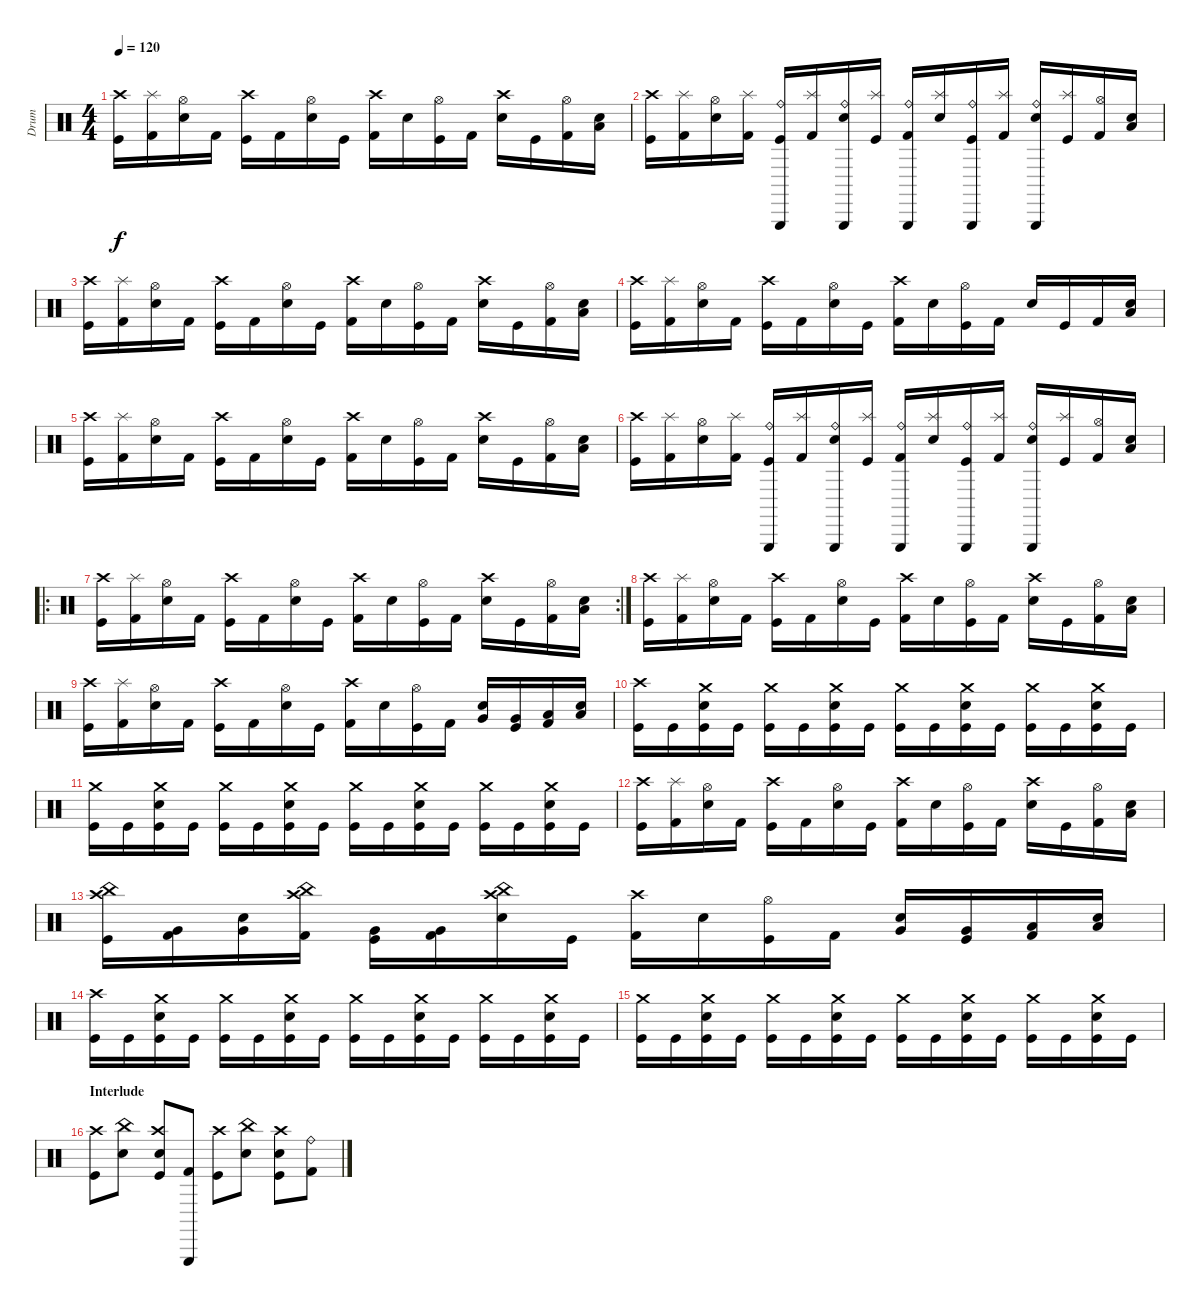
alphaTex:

\track ("Drum" "Drum") {instrument percussion}
\staff {score}
\articulation defaults
\ts (4 4)
\tempo 120
\clef neutral
\ks c
("Crash high (hit)" "Kick (hit)").16{dy f} ("Splash (hit)" "Kick (hit) 2").16 ("Hi-Hat (open)" "Snare (hit) 2").16 "Kick (hit) 2".16 ("Crash high (hit)" "Kick (hit)").16 "Kick (hit) 2".16 ("Hi-Hat (open)" "Snare (hit) 2").16 "Kick (hit)".16 ("Crash high (hit)" "Kick (hit) 2").16 "Snare (hit) 2".16 ("Hi-Hat (open)" "Kick (hit)").16 "Kick (hit) 2".16 ("Crash high (hit)" "Snare (hit) 2").16 "Kick (hit)".16 ("Hi-Hat (open)" "Kick (hit) 2").16 ("Low Tom (hit)" "Snare (hit) 2").16 |
("Crash high (hit)" "Kick (hit)").16 ("Splash (hit)" "Kick (hit) 2").16 ("Hi-Hat (open)" "Snare (hit) 2").16 ("Splash (hit)" "Kick (hit) 2").16 ("Ride (bell)" "Triangle (hit)" "Kick (hit)").16 ("Splash (hit)" "Kick (hit) 2").16 ("Ride (bell)" "Triangle (hit)" "Snare (hit) 2").16 ("Splash (hit)" "Kick (hit)").16 ("Ride (bell)" "Triangle (hit)" "Kick (hit) 2").16 ("Splash (hit)" "Snare (hit) 2").16 ("Ride (bell)" "Triangle (hit)" "Kick (hit)").16 ("Splash (hit)" "Kick (hit) 2").16 ("Ride (bell)" "Triangle (hit)" "Snare (hit) 2").16 ("Splash (hit)" "Kick (hit)").16 ("Hi-Hat (open)" "Kick (hit) 2").16 ("Low Tom (hit)" "Snare (hit) 2").16 |
("Crash high (hit)" "Kick (hit)").16 ("Splash (hit)" "Kick (hit) 2").16 ("Hi-Hat (open)" "Snare (hit) 2").16 "Kick (hit) 2".16 ("Crash high (hit)" "Kick (hit)").16 "Kick (hit) 2".16 ("Hi-Hat (open)" "Snare (hit) 2").16 "Kick (hit)".16 ("Crash high (hit)" "Kick (hit) 2").16 "Snare (hit) 2".16 ("Hi-Hat (open)" "Kick (hit)").16 "Kick (hit) 2".16 ("Crash high (hit)" "Snare (hit) 2").16 "Kick (hit)".16 ("Hi-Hat (open)" "Kick (hit) 2").16 ("Low Tom (hit)" "Snare (hit) 2").16 |
("Crash high (hit)" "Kick (hit)").16 ("Splash (hit)" "Kick (hit) 2").16 ("Hi-Hat (open)" "Snare (hit) 2").16 "Kick (hit) 2".16 ("Crash high (hit)" "Kick (hit)").16 "Kick (hit) 2".16 ("Hi-Hat (open)" "Snare (hit) 2").16 "Kick (hit)".16 ("Crash high (hit)" "Kick (hit) 2").16 "Snare (hit) 2".16 ("Hi-Hat (open)" "Kick (hit)").16 "Kick (hit) 2".16 "Snare (hit) 2".16 "Kick (hit)".16 "Kick (hit) 2".16 ("Low Tom (hit)" "Snare (hit) 2").16 |
("Crash high (hit)" "Kick (hit)").16 ("Splash (hit)" "Kick (hit) 2").16 ("Hi-Hat (open)" "Snare (hit) 2").16 "Kick (hit) 2".16 ("Crash high (hit)" "Kick (hit)").16 "Kick (hit) 2".16 ("Hi-Hat (open)" "Snare (hit) 2").16 "Kick (hit)".16 ("Crash high (hit)" "Kick (hit) 2").16 "Snare (hit) 2".16 ("Hi-Hat (open)" "Kick (hit)").16 "Kick (hit) 2".16 ("Crash high (hit)" "Snare (hit) 2").16 "Kick (hit)".16 ("Hi-Hat (open)" "Kick (hit) 2").16 ("Low Tom (hit)" "Snare (hit) 2").16 |
("Crash high (hit)" "Kick (hit)").16 ("Splash (hit)" "Kick (hit) 2").16 ("Hi-Hat (open)" "Snare (hit) 2").16 ("Splash (hit)" "Kick (hit) 2").16 ("Ride (bell)" "Triangle (hit)" "Kick (hit)").16 ("Splash (hit)" "Kick (hit) 2").16 ("Ride (bell)" "Triangle (hit)" "Snare (hit) 2").16 ("Splash (hit)" "Kick (hit)").16 ("Ride (bell)" "Triangle (hit)" "Kick (hit) 2").16 ("Splash (hit)" "Snare (hit) 2").16 ("Ride (bell)" "Triangle (hit)" "Kick (hit)").16 ("Splash (hit)" "Kick (hit) 2").16 ("Ride (bell)" "Triangle (hit)" "Snare (hit) 2").16 ("Splash (hit)" "Kick (hit)").16 ("Hi-Hat (open)" "Kick (hit) 2").16 ("Low Tom (hit)" "Snare (hit) 2").16 |
\ro
\rc 2
("Crash high (hit)" "Kick (hit)").16 ("Splash (hit)" "Kick (hit) 2").16 ("Hi-Hat (open)" "Snare (hit) 2").16 "Kick (hit) 2".16 ("Crash high (hit)" "Kick (hit)").16 "Kick (hit) 2".16 ("Hi-Hat (open)" "Snare (hit) 2").16 "Kick (hit)".16 ("Crash high (hit)" "Kick (hit) 2").16 "Snare (hit) 2".16 ("Hi-Hat (open)" "Kick (hit)").16 "Kick (hit) 2".16 ("Crash high (hit)" "Snare (hit) 2").16 "Kick (hit)".16 ("Hi-Hat (open)" "Kick (hit) 2").16 ("Low Tom (hit)" "Snare (hit) 2").16 |
("Crash high (hit)" "Kick (hit)").16 ("Splash (hit)" "Kick (hit) 2").16 ("Hi-Hat (open)" "Snare (hit) 2").16 "Kick (hit) 2".16 ("Crash high (hit)" "Kick (hit)").16 "Kick (hit) 2".16 ("Hi-Hat (open)" "Snare (hit) 2").16 "Kick (hit)".16 ("Crash high (hit)" "Kick (hit) 2").16 "Snare (hit) 2".16 ("Hi-Hat (open)" "Kick (hit)").16 "Kick (hit) 2".16 ("Crash high (hit)" "Snare (hit) 2").16 "Kick (hit)".16 ("Hi-Hat (open)" "Kick (hit) 2").16 ("Low Tom (hit)" "Snare (hit) 2").16 |
("Crash high (hit)" "Kick (hit)").16 ("Splash (hit)" "Kick (hit) 2").16 ("Hi-Hat (open)" "Snare (hit) 2").16 "Kick (hit) 2".16 ("Crash high (hit)" "Kick (hit)").16 "Kick (hit) 2".16 ("Hi-Hat (open)" "Snare (hit) 2").16 "Kick (hit)".16 ("Crash high (hit)" "Kick (hit) 2").16 "Snare (hit) 2".16 ("Hi-Hat (open)" "Kick (hit)").16 "Kick (hit) 2".16 ("Very Low Tom (hit)" "Snare (hit) 2").16 ("Very Low Tom (hit)" "Kick (hit)").16 ("Low Floor Tom (hit)" "Kick (hit) 2").16 ("Low Floor Tom (hit)" "Snare (hit) 2").16 |
("Crash high (hit)" "Kick (hit)").16 "Kick (hit)".16 ("Crash medium (hit)" "Electric Snare (hit)" "Kick (hit)").16 "Kick (hit)".16 ("Crash medium (hit)" "Kick (hit)").16 "Kick (hit)".16 ("Crash medium (hit)" "Electric Snare (hit)" "Kick (hit)").16 "Kick (hit)".16 ("Crash medium (hit)" "Kick (hit)").16 "Kick (hit)".16 ("Crash medium (hit)" "Electric Snare (hit)" "Kick (hit)").16 "Kick (hit)".16 ("Crash medium (hit)" "Kick (hit)").16 "Kick (hit)".16 ("Crash medium (hit)" "Electric Snare (hit)" "Kick (hit)").16 "Kick (hit)".16 |
("Crash medium (hit)" "Kick (hit)").16 "Kick (hit)".16 ("Crash medium (hit)" "Electric Snare (hit)" "Kick (hit)").16 "Kick (hit)".16 ("Crash medium (hit)" "Kick (hit)").16 "Kick (hit)".16 ("Crash medium (hit)" "Electric Snare (hit)" "Kick (hit)").16 "Kick (hit)".16 ("Crash medium (hit)" "Kick (hit)").16 "Kick (hit)".16 ("Crash medium (hit)" "Electric Snare (hit)" "Kick (hit)").16 "Kick (hit)".16 ("Crash medium (hit)" "Kick (hit)").16 "Kick (hit)".16 ("Crash medium (hit)" "Electric Snare (hit)" "Kick (hit)").16 "Kick (hit)".16 |
("Crash high (hit)" "Kick (hit)").16 ("Splash (hit)" "Kick (hit) 2").16 ("Hi-Hat (open)" "Snare (hit) 2").16 "Kick (hit) 2".16 ("Crash high (hit)" "Kick (hit)").16 "Kick (hit) 2".16 ("Hi-Hat (open)" "Snare (hit) 2").16 "Kick (hit)".16 ("Crash high (hit)" "Kick (hit) 2").16 "Snare (hit) 2".16 ("Hi-Hat (open)" "Kick (hit)").16 "Kick (hit) 2".16 ("Crash high (hit)" "Snare (hit) 2").16 "Kick (hit)".16 ("Hi-Hat (open)" "Kick (hit) 2").16 ("Low Tom (hit)" "Snare (hit) 2").16 |
("Crash high (hit)" "China (hit)" "Kick (hit)").16 ("Very Low Tom (hit)" "Kick (hit) 2").16 ("Very Low Tom (hit)" "Snare (hit) 2").16 ("Crash high (hit)" "China (hit)" "Kick (hit) 2").16 ("Very Low Tom (hit)" "Kick (hit)").16 ("Very Low Tom (hit)" "Kick (hit) 2").16 ("Crash high (hit)" "China (hit)" "Snare (hit) 2").16 "Kick (hit)".16 ("Crash high (hit)" "Kick (hit) 2").16 "Snare (hit) 2".16 ("Hi-Hat (open)" "Kick (hit)").16 "Kick (hit) 2".16 ("Very Low Tom (hit)" "Snare (hit) 2").16 ("Very Low Tom (hit)" "Kick (hit)").16 ("Low Floor Tom (hit)" "Kick (hit) 2").16 ("Low Floor Tom (hit)" "Snare (hit) 2").16 |
("Crash high (hit)" "Kick (hit)").16 "Kick (hit)".16 ("Crash medium (hit)" "Electric Snare (hit)" "Kick (hit)").16 "Kick (hit)".16 ("Crash medium (hit)" "Kick (hit)").16 "Kick (hit)".16 ("Crash medium (hit)" "Electric Snare (hit)" "Kick (hit)").16 "Kick (hit)".16 ("Crash medium (hit)" "Kick (hit)").16 "Kick (hit)".16 ("Crash medium (hit)" "Electric Snare (hit)" "Kick (hit)").16 "Kick (hit)".16 ("Crash medium (hit)" "Kick (hit)").16 "Kick (hit)".16 ("Crash medium (hit)" "Electric Snare (hit)" "Kick (hit)").16 "Kick (hit)".16 |
("Crash medium (hit)" "Kick (hit)").16 "Kick (hit)".16 ("Crash medium (hit)" "Electric Snare (hit)" "Kick (hit)").16 "Kick (hit)".16 ("Crash medium (hit)" "Kick (hit)").16 "Kick (hit)".16 ("Crash medium (hit)" "Electric Snare (hit)" "Kick (hit)").16 "Kick (hit)".16 ("Crash medium (hit)" "Kick (hit)").16 "Kick (hit)".16 ("Crash medium (hit)" "Electric Snare (hit)" "Kick (hit)").16 "Kick (hit)".16 ("Crash medium (hit)" "Kick (hit)").16 "Kick (hit)".16 ("Crash medium (hit)" "Electric Snare (hit)" "Kick (hit)").16 "Kick (hit)".16 |
\section ("" "Interlude")
("Crash high (hit)" "Kick (hit)").8 ("China (hit)" "Metronome (bell)").8 ("Crash high (hit)" "Snare (hit) 2" "Kick (hit)").8 ("Triangle (hit)" "Kick (hit) 2").8 ("Crash high (hit)" "Kick (hit)").8 ("China (hit)" "Metronome (bell)").8 ("Crash high (hit)" "Snare (hit) 2" "Kick (hit)").8 ("Ride (bell)" "Kick (hit) 2").8
